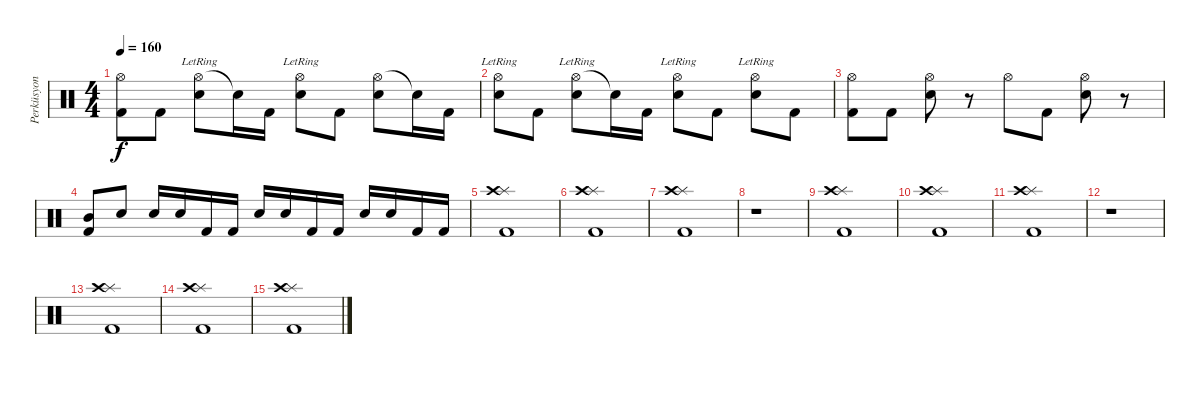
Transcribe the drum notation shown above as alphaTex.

\track ("Perküsyon" "Perküsyon") {instrument percussion}
\staff {score}
\articulation defaults
\ts (4 4)
\tempo 160
\clef neutral
\ks c
("Hi-Hat (open)" "Kick (hit) 2").8{dy f} "Kick (hit) 2".8 ("Hi-Hat (open)" "Electric Snare (hit)"{lr}).8 "Snare (hit)"{t}.16 "Kick (hit) 2".16 ("Hi-Hat (open)" "Electric Snare (hit)"{lr}).8 "Kick (hit) 2".8 ("Hi-Hat (open)" "Electric Snare (hit)").8 "Snare (hit)"{t}.16 "Kick (hit) 2".16 |
("Hi-Hat (open)" "Electric Snare (hit)"{lr}).8 "Kick (hit) 2".8 ("Hi-Hat (open)" "Electric Snare (hit)"{lr}).8 "Snare (hit)"{t}.16 "Kick (hit) 2".16 ("Hi-Hat (open)" "Electric Snare (hit)"{lr}).8 "Kick (hit) 2".8 ("Hi-Hat (open)" "Electric Snare (hit)"{lr}).8 "Kick (hit) 2".8 |
("Hi-Hat (open)" "Kick (hit) 2").8 "Kick (hit) 2".8 ("Hi-Hat (open)" "Electric Snare (hit)").8 r.8 "Hi-Hat (open)".8 "Kick (hit) 2".8 ("Hi-Hat (open)" "Electric Snare (hit)").8 r.8 |
("Mid Tom (hit)" "Kick (hit) 2").8 "Electric Snare (hit)".8 "Electric Snare (hit)".16 "Electric Snare (hit)".16 "Kick (hit) 2".16 "Kick (hit) 2".16 "Electric Snare (hit)".16 "Electric Snare (hit)".16 "Kick (hit) 2".16 "Kick (hit) 2".16 "Electric Snare (hit)".16 "Electric Snare (hit)".16 "Kick (hit) 2".16 "Kick (hit) 2".16 |
("Splash (hit)" "Crash high (hit)" "Kick (hit) 2").1 |
("Splash (hit)" "Crash high (hit)" "Kick (hit) 2").1 |
("Splash (hit)" "Crash high (hit)" "Kick (hit) 2").1 |
r.1 |
("Splash (hit)" "Crash high (hit)" "Kick (hit) 2").1 |
("Splash (hit)" "Crash high (hit)" "Kick (hit) 2").1 |
("Splash (hit)" "Crash high (hit)" "Kick (hit) 2").1 |
r.1 |
("Splash (hit)" "Crash high (hit)" "Kick (hit) 2").1 |
("Splash (hit)" "Crash high (hit)" "Kick (hit) 2").1 |
("Splash (hit)" "Crash high (hit)" "Kick (hit) 2").1
